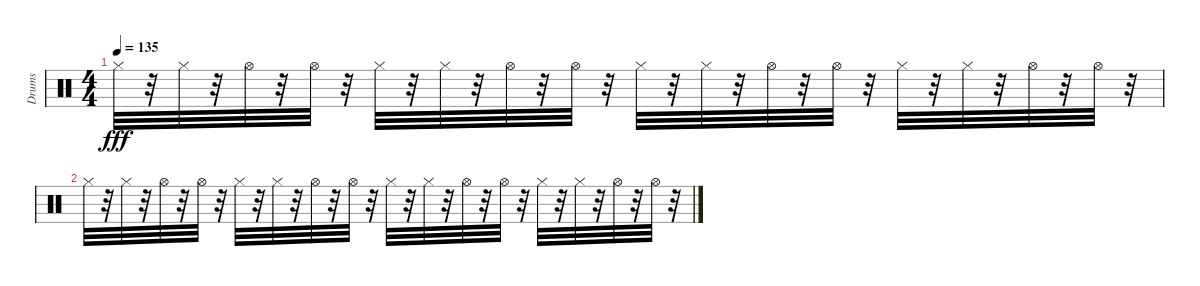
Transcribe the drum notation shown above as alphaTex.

\track ("Drums" "Drums") {instrument percussion}
\staff {score}
\articulation defaults
\ts (4 4)
\tempo 135
\clef neutral
\ks c "Hi-Hat (closed)".32{dy fff balance 16}
r.32 "Hi-Hat (closed)".32{balance 16} r.32 "Hi-Hat (open)".32{balance 15} r.32 "Hi-Hat (open)".32{balance 14} r.32 "Hi-Hat (closed)".32{balance 14} r.32 "Hi-Hat (closed)".32{balance 14} r.32 "Hi-Hat (open)".32{balance 13} r.32 "Hi-Hat (open)".32{balance 13} r.32 "Hi-Hat (closed)".32{balance 12} r.32 "Hi-Hat (closed)".32{balance 12} r.32 "Hi-Hat (open)".32{balance 11} r.32 "Hi-Hat (open)".32{balance 11} r.32 "Hi-Hat (closed)".32{balance 10} r.32 "Hi-Hat (closed)".32{balance 10} r.32 "Hi-Hat (open)".32{balance 9} r.32 "Hi-Hat (open)".32{balance 9} r.32 |
"Hi-Hat (closed)".32{balance 8} r.32 "Hi-Hat (closed)".32{balance 8} r.32 "Hi-Hat (open)".32{balance 7} r.32 "Hi-Hat (open)".32{balance 7} r.32 "Hi-Hat (closed)".32{balance 6} r.32 "Hi-Hat (closed)".32{balance 6} r.32 "Hi-Hat (open)".32{balance 5} r.32 "Hi-Hat (open)".32{balance 5} r.32 "Hi-Hat (closed)".32{balance 4} r.32 "Hi-Hat (closed)".32{balance 4} r.32 "Hi-Hat (open)".32{balance 3} r.32 "Hi-Hat (open)".32{balance 3} r.32 "Hi-Hat (closed)".32{balance 2} r.32 "Hi-Hat (closed)".32{balance 2} r.32 "Hi-Hat (open)".32{balance 1} r.32 "Hi-Hat (open)".32{balance 1} r.32
